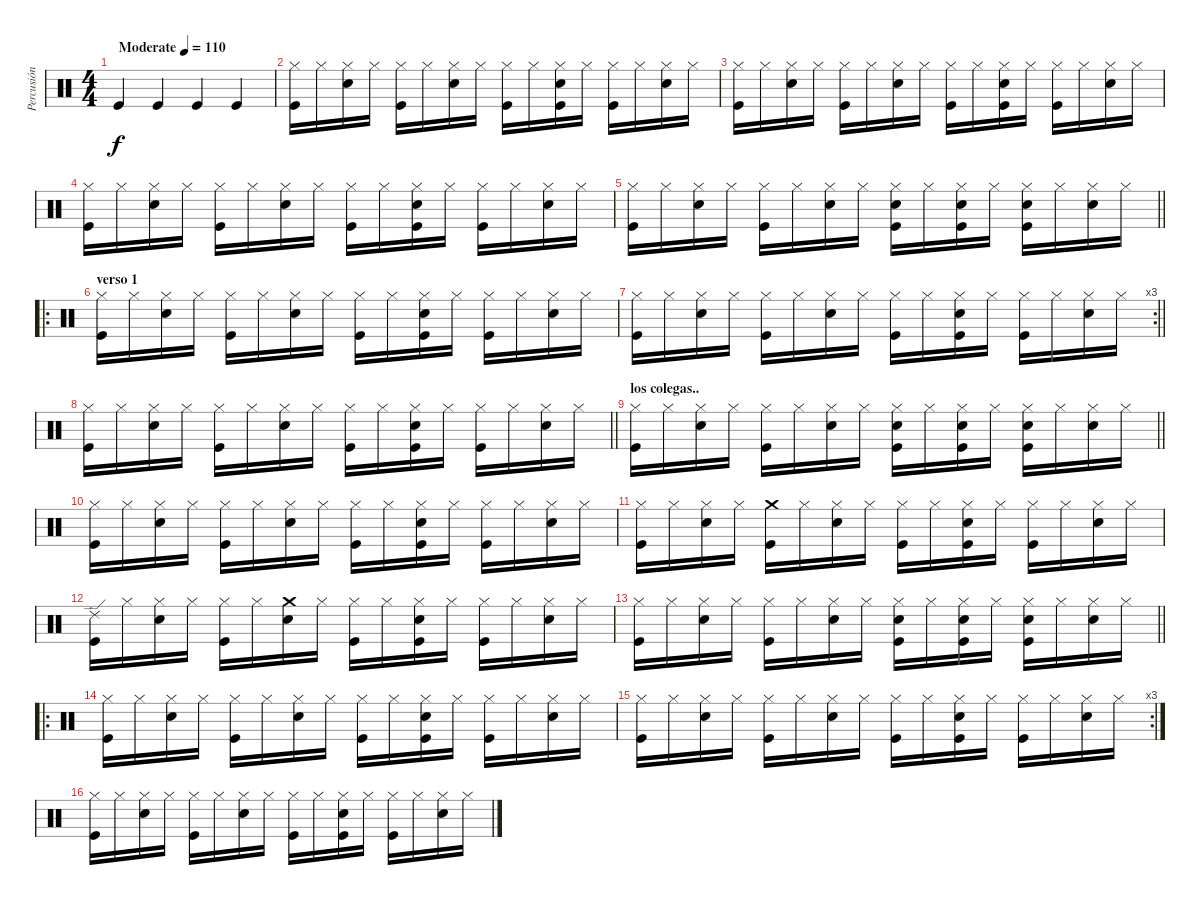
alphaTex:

\track ("Percusión" "Percusión") {instrument percussion}
\staff {score}
\articulation defaults
\ts (4 4)
\tempo (110 "Moderate")
\clef neutral
\ks c "Kick (hit)".4{dy f} "Kick (hit)".4 "Kick (hit)".4 "Kick (hit)".4
|
("Hi-Hat (closed)" "Kick (hit)").16 "Hi-Hat (closed)".16 ("Hi-Hat (closed)" "Electric Snare (hit)").16 "Hi-Hat (closed)".16 ("Hi-Hat (closed)" "Kick (hit)").16 "Hi-Hat (closed)".16 ("Hi-Hat (closed)" "Electric Snare (hit)").16 "Hi-Hat (closed)".16 ("Hi-Hat (closed)" "Kick (hit)").16 "Hi-Hat (closed)".16 ("Hi-Hat (closed)" "Electric Snare (hit)" "Kick (hit)").16 "Hi-Hat (closed)".16 ("Hi-Hat (closed)" "Kick (hit)").16 "Hi-Hat (closed)".16 ("Hi-Hat (closed)" "Electric Snare (hit)").16 "Hi-Hat (closed)".16 |
("Hi-Hat (closed)" "Kick (hit)").16 "Hi-Hat (closed)".16 ("Hi-Hat (closed)" "Electric Snare (hit)").16 "Hi-Hat (closed)".16 ("Hi-Hat (closed)" "Kick (hit)").16 "Hi-Hat (closed)".16 ("Hi-Hat (closed)" "Electric Snare (hit)").16 "Hi-Hat (closed)".16 ("Hi-Hat (closed)" "Kick (hit)").16 "Hi-Hat (closed)".16 ("Hi-Hat (closed)" "Electric Snare (hit)" "Kick (hit)").16 "Hi-Hat (closed)".16 ("Hi-Hat (closed)" "Kick (hit)").16 "Hi-Hat (closed)".16 ("Hi-Hat (closed)" "Electric Snare (hit)").16 "Hi-Hat (closed)".16 |
("Hi-Hat (closed)" "Kick (hit)").16 "Hi-Hat (closed)".16 ("Hi-Hat (closed)" "Electric Snare (hit)").16 "Hi-Hat (closed)".16 ("Hi-Hat (closed)" "Kick (hit)").16 "Hi-Hat (closed)".16 ("Hi-Hat (closed)" "Electric Snare (hit)").16 "Hi-Hat (closed)".16 ("Hi-Hat (closed)" "Kick (hit)").16 "Hi-Hat (closed)".16 ("Hi-Hat (closed)" "Electric Snare (hit)" "Kick (hit)").16 "Hi-Hat (closed)".16 ("Hi-Hat (closed)" "Kick (hit)").16 "Hi-Hat (closed)".16 ("Hi-Hat (closed)" "Electric Snare (hit)").16 "Hi-Hat (closed)".16 |
\barLineRight lightlight
("Hi-Hat (closed)" "Kick (hit)").16 "Hi-Hat (closed)".16 ("Hi-Hat (closed)" "Electric Snare (hit)").16 "Hi-Hat (closed)".16 ("Hi-Hat (closed)" "Kick (hit)").16 "Hi-Hat (closed)".16 ("Hi-Hat (closed)" "Electric Snare (hit)").16 "Hi-Hat (closed)".16 ("Hi-Hat (closed)" "Electric Snare (hit)" "Kick (hit)").16 "Hi-Hat (closed)".16 ("Hi-Hat (closed)" "Electric Snare (hit)" "Kick (hit)").16 "Hi-Hat (closed)".16 ("Hi-Hat (closed)" "Electric Snare (hit)" "Kick (hit)").16 "Hi-Hat (closed)".16 ("Hi-Hat (closed)" "Electric Snare (hit)").16 "Hi-Hat (closed)".16 |
\ro
\section ("" "verso 1")
("Hi-Hat (closed)" "Kick (hit)").16 "Hi-Hat (closed)".16 ("Hi-Hat (closed)" "Electric Snare (hit)").16 "Hi-Hat (closed)".16 ("Hi-Hat (closed)" "Kick (hit)").16 "Hi-Hat (closed)".16 ("Hi-Hat (closed)" "Electric Snare (hit)").16 "Hi-Hat (closed)".16 ("Hi-Hat (closed)" "Kick (hit)").16 "Hi-Hat (closed)".16 ("Hi-Hat (closed)" "Electric Snare (hit)" "Kick (hit)").16 "Hi-Hat (closed)".16 ("Hi-Hat (closed)" "Kick (hit)").16 "Hi-Hat (closed)".16 ("Hi-Hat (closed)" "Electric Snare (hit)").16 "Hi-Hat (closed)".16 |
\rc 3
\barLineRight lightlight
("Hi-Hat (closed)" "Kick (hit)").16 "Hi-Hat (closed)".16 ("Hi-Hat (closed)" "Electric Snare (hit)").16 "Hi-Hat (closed)".16 ("Hi-Hat (closed)" "Kick (hit)").16 "Hi-Hat (closed)".16 ("Hi-Hat (closed)" "Electric Snare (hit)").16 "Hi-Hat (closed)".16 ("Hi-Hat (closed)" "Kick (hit)").16 "Hi-Hat (closed)".16 ("Hi-Hat (closed)" "Electric Snare (hit)" "Kick (hit)").16 "Hi-Hat (closed)".16 ("Hi-Hat (closed)" "Kick (hit)").16 "Hi-Hat (closed)".16 ("Hi-Hat (closed)" "Electric Snare (hit)").16 "Hi-Hat (closed)".16 |
\section ("" "")
\barLineRight lightlight
("Hi-Hat (closed)" "Kick (hit)").16 "Hi-Hat (closed)".16 ("Hi-Hat (closed)" "Electric Snare (hit)").16 "Hi-Hat (closed)".16 ("Hi-Hat (closed)" "Kick (hit)").16 "Hi-Hat (closed)".16 ("Hi-Hat (closed)" "Electric Snare (hit)").16 "Hi-Hat (closed)".16 ("Hi-Hat (closed)" "Kick (hit)").16 "Hi-Hat (closed)".16 ("Hi-Hat (closed)" "Electric Snare (hit)" "Kick (hit)").16 "Hi-Hat (closed)".16 ("Hi-Hat (closed)" "Kick (hit)").16 "Hi-Hat (closed)".16 ("Hi-Hat (closed)" "Electric Snare (hit)").16 "Hi-Hat (closed)".16 |
\section ("" "los colegas..")
\barLineRight lightlight
("Hi-Hat (closed)" "Kick (hit)").16 "Hi-Hat (closed)".16 ("Hi-Hat (closed)" "Electric Snare (hit)").16 "Hi-Hat (closed)".16 ("Hi-Hat (closed)" "Kick (hit)").16 "Hi-Hat (closed)".16 ("Hi-Hat (closed)" "Electric Snare (hit)").16 "Hi-Hat (closed)".16 ("Hi-Hat (closed)" "Electric Snare (hit)" "Kick (hit)").16 "Hi-Hat (closed)".16 ("Hi-Hat (closed)" "Electric Snare (hit)" "Kick (hit)").16 "Hi-Hat (closed)".16 ("Hi-Hat (closed)" "Electric Snare (hit)" "Kick (hit)").16 "Hi-Hat (closed)".16 ("Hi-Hat (closed)" "Electric Snare (hit)").16 "Hi-Hat (closed)".16 |
("Hi-Hat (closed)" "Kick (hit)").16 "Hi-Hat (closed)".16 ("Hi-Hat (closed)" "Electric Snare (hit)").16 "Hi-Hat (closed)".16 ("Hi-Hat (closed)" "Kick (hit)").16 "Hi-Hat (closed)".16 ("Hi-Hat (closed)" "Electric Snare (hit)").16 "Hi-Hat (closed)".16 ("Hi-Hat (closed)" "Kick (hit)").16 "Hi-Hat (closed)".16 ("Hi-Hat (closed)" "Electric Snare (hit)" "Kick (hit)").16 "Hi-Hat (closed)".16 ("Hi-Hat (closed)" "Kick (hit)").16 "Hi-Hat (closed)".16 ("Hi-Hat (closed)" "Electric Snare (hit)").16 "Hi-Hat (closed)".16 |
("Hi-Hat (closed)" "Kick (hit)").16 "Hi-Hat (closed)".16 ("Hi-Hat (closed)" "Electric Snare (hit)").16 "Hi-Hat (closed)".16 ("Crash medium (hit)" "Kick (hit)").16 "Hi-Hat (closed)".16 ("Hi-Hat (closed)" "Electric Snare (hit)").16 "Hi-Hat (closed)".16 ("Hi-Hat (closed)" "Kick (hit)").16 "Hi-Hat (closed)".16 ("Hi-Hat (closed)" "Electric Snare (hit)" "Kick (hit)").16 "Hi-Hat (closed)".16 ("Hi-Hat (closed)" "Kick (hit)").16 "Hi-Hat (closed)".16 ("Hi-Hat (closed)" "Electric Snare (hit)").16 "Hi-Hat (closed)".16 |
("Ride (edge) 2" "Kick (hit)").16 "Hi-Hat (closed)".16 ("Hi-Hat (closed)" "Electric Snare (hit)").16 "Hi-Hat (closed)".16 ("Hi-Hat (closed)" "Kick (hit)").16 "Hi-Hat (closed)".16 ("Crash medium (hit)" "Electric Snare (hit)").16 "Hi-Hat (closed)".16 ("Hi-Hat (closed)" "Kick (hit)").16 "Hi-Hat (closed)".16 ("Hi-Hat (closed)" "Electric Snare (hit)" "Kick (hit)").16 "Hi-Hat (closed)".16 ("Hi-Hat (closed)" "Kick (hit)").16 "Hi-Hat (closed)".16 ("Hi-Hat (closed)" "Electric Snare (hit)").16 "Hi-Hat (closed)".16 |
\barLineRight lightlight
("Hi-Hat (closed)" "Kick (hit)").16 "Hi-Hat (closed)".16 ("Hi-Hat (closed)" "Electric Snare (hit)").16 "Hi-Hat (closed)".16 ("Hi-Hat (closed)" "Kick (hit)").16 "Hi-Hat (closed)".16 ("Hi-Hat (closed)" "Electric Snare (hit)").16 "Hi-Hat (closed)".16 ("Hi-Hat (closed)" "Electric Snare (hit)" "Kick (hit)").16 "Hi-Hat (closed)".16 ("Hi-Hat (closed)" "Electric Snare (hit)" "Kick (hit)").16 "Hi-Hat (closed)".16 ("Hi-Hat (closed)" "Electric Snare (hit)" "Kick (hit)").16 "Hi-Hat (closed)".16 ("Hi-Hat (closed)" "Electric Snare (hit)").16 "Hi-Hat (closed)".16 |
\ro
("Hi-Hat (closed)" "Kick (hit)").16 "Hi-Hat (closed)".16 ("Hi-Hat (closed)" "Electric Snare (hit)").16 "Hi-Hat (closed)".16 ("Hi-Hat (closed)" "Kick (hit)").16 "Hi-Hat (closed)".16 ("Hi-Hat (closed)" "Electric Snare (hit)").16 "Hi-Hat (closed)".16 ("Hi-Hat (closed)" "Kick (hit)").16 "Hi-Hat (closed)".16 ("Hi-Hat (closed)" "Electric Snare (hit)" "Kick (hit)").16 "Hi-Hat (closed)".16 ("Hi-Hat (closed)" "Kick (hit)").16 "Hi-Hat (closed)".16 ("Hi-Hat (closed)" "Electric Snare (hit)").16 "Hi-Hat (closed)".16 |
\rc 3
("Hi-Hat (closed)" "Kick (hit)").16 "Hi-Hat (closed)".16 ("Hi-Hat (closed)" "Electric Snare (hit)").16 "Hi-Hat (closed)".16 ("Hi-Hat (closed)" "Kick (hit)").16 "Hi-Hat (closed)".16 ("Hi-Hat (closed)" "Electric Snare (hit)").16 "Hi-Hat (closed)".16 ("Hi-Hat (closed)" "Kick (hit)").16 "Hi-Hat (closed)".16 ("Hi-Hat (closed)" "Electric Snare (hit)" "Kick (hit)").16 "Hi-Hat (closed)".16 ("Hi-Hat (closed)" "Kick (hit)").16 "Hi-Hat (closed)".16 ("Hi-Hat (closed)" "Electric Snare (hit)").16 "Hi-Hat (closed)".16 |
("Hi-Hat (closed)" "Kick (hit)").16 "Hi-Hat (closed)".16 ("Hi-Hat (closed)" "Electric Snare (hit)").16 "Hi-Hat (closed)".16 ("Hi-Hat (closed)" "Kick (hit)").16 "Hi-Hat (closed)".16 ("Hi-Hat (closed)" "Electric Snare (hit)").16 "Hi-Hat (closed)".16 ("Hi-Hat (closed)" "Kick (hit)").16 "Hi-Hat (closed)".16 ("Hi-Hat (closed)" "Electric Snare (hit)" "Kick (hit)").16 "Hi-Hat (closed)".16 ("Hi-Hat (closed)" "Kick (hit)").16 "Hi-Hat (closed)".16 ("Hi-Hat (closed)" "Electric Snare (hit)").16 "Hi-Hat (closed)".16
